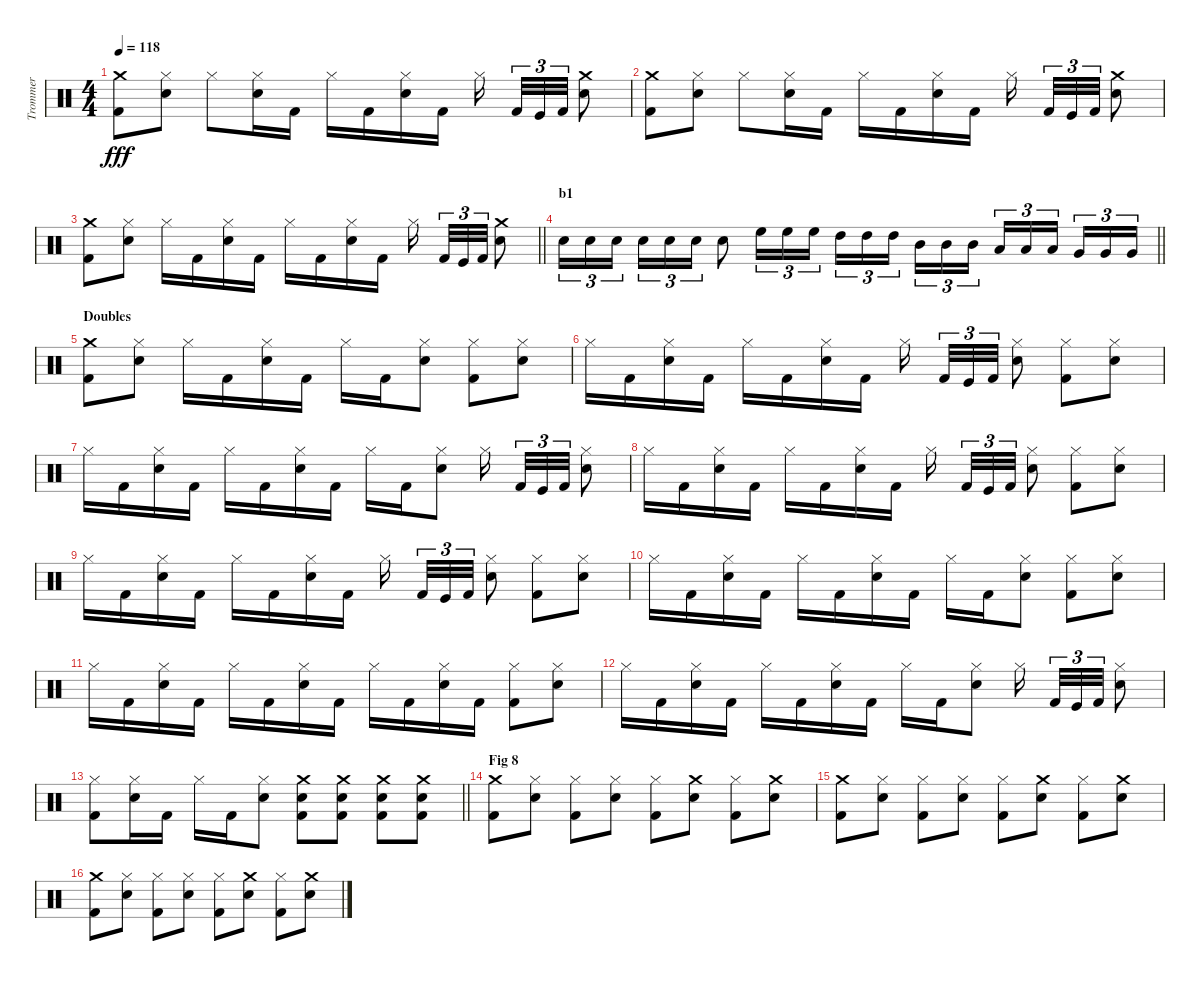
\track ("Trommer" "Trommer") {instrument percussion}
\staff {score}
\articulation defaults
\ts (4 4)
\tempo 118
\clef neutral
\ks c
("Crash medium (hit)" "Kick (hit) 2").8{dy fff} ("Hi-Hat (closed)" "Electric Snare (hit)").8 "Hi-Hat (closed)".8 ("Hi-Hat (closed)" "Electric Snare (hit)").16 "Kick (hit) 2".16 "Hi-Hat (closed)".16 "Kick (hit) 2".16 ("Hi-Hat (closed)" "Electric Snare (hit)").16 "Kick (hit) 2".16 "Hi-Hat (closed)".16{beam splitsecondary} "Kick (hit) 2".32{tu (3 2)} "Kick (hit)".32{tu (3 2)} "Kick (hit) 2".32{tu (3 2)} ("Crash medium (hit)" "Electric Snare (hit)").8 |
("Crash medium (hit)" "Kick (hit) 2").8 ("Hi-Hat (closed)" "Electric Snare (hit)").8 "Hi-Hat (closed)".8 ("Hi-Hat (closed)" "Electric Snare (hit)").16 "Kick (hit) 2".16 "Hi-Hat (closed)".16 "Kick (hit) 2".16 ("Hi-Hat (closed)" "Electric Snare (hit)").16 "Kick (hit) 2".16 "Hi-Hat (closed)".16{beam splitsecondary} "Kick (hit) 2".32{tu (3 2)} "Kick (hit)".32{tu (3 2)} "Kick (hit) 2".32{tu (3 2)} ("Crash medium (hit)" "Electric Snare (hit)").8 |
\barLineRight lightlight
("Crash medium (hit)" "Kick (hit) 2").8 ("Hi-Hat (closed)" "Electric Snare (hit)").8 "Hi-Hat (closed)".16 "Kick (hit) 2".16 ("Hi-Hat (closed)" "Electric Snare (hit)").16 "Kick (hit) 2".16 "Hi-Hat (closed)".16 "Kick (hit) 2".16 ("Hi-Hat (closed)" "Electric Snare (hit)").16 "Kick (hit) 2".16 "Hi-Hat (closed)".16{beam splitsecondary} "Kick (hit) 2".32{tu (3 2)} "Kick (hit)".32{tu (3 2)} "Kick (hit) 2".32{tu (3 2)} ("Crash medium (hit)" "Electric Snare (hit)").8 |
\section ("" "b1")
\barLineRight lightlight "Electric Snare (hit)".16{tu (3 2)} "Electric Snare (hit)".16{tu (3 2)} "Electric Snare (hit)".16{tu (3 2) beam splitsecondary} "Electric Snare (hit)".16{tu (3 2)} "Electric Snare (hit)".16{tu (3 2)} "Electric Snare (hit)".16{tu (3 2)} "Electric Snare (hit)".8 "High Floor Tom (hit)".16{tu (3 2)} "High Floor Tom (hit)".16{tu (3 2)} "High Floor Tom (hit)".16{tu (3 2)} "High Tom (hit)".16{tu (3 2)} "High Tom (hit)".16{tu (3 2)} "High Tom (hit)".16{tu (3 2) beam splitsecondary} "Mid Tom (hit)".16{tu (3 2)} "Mid Tom (hit)".16{tu (3 2)} "Mid Tom (hit)".16{tu (3 2)} "Low Tom (hit)".16{tu (3 2)} "Low Tom (hit)".16{tu (3 2)} "Low Tom (hit)".16{tu (3 2) beam splitsecondary} "Very Low Tom (hit)".16{tu (3 2)} "Very Low Tom (hit)".16{tu (3 2)} "Very Low Tom (hit)".16{tu (3 2)}
|
\section ("" "Doubles")
("Crash medium (hit)" "Kick (hit) 2").8 ("Hi-Hat (closed)" "Electric Snare (hit)").8 "Hi-Hat (closed)".16 "Kick (hit) 2".16 ("Hi-Hat (closed)" "Electric Snare (hit)").16 "Kick (hit) 2".16 "Hi-Hat (closed)".16 "Kick (hit) 2".16 ("Hi-Hat (closed)" "Electric Snare (hit)").8 ("Hi-Hat (closed)" "Kick (hit) 2").8 ("Hi-Hat (closed)" "Electric Snare (hit)").8 |
"Hi-Hat (closed)".16 "Kick (hit) 2".16 ("Hi-Hat (closed)" "Electric Snare (hit)").16 "Kick (hit) 2".16 "Hi-Hat (closed)".16 "Kick (hit) 2".16 ("Hi-Hat (closed)" "Electric Snare (hit)").16 "Kick (hit) 2".16 "Hi-Hat (closed)".16{beam splitsecondary} "Kick (hit) 2".32{tu (3 2)} "Kick (hit)".32{tu (3 2)} "Kick (hit) 2".32{tu (3 2)} ("Hi-Hat (closed)" "Electric Snare (hit)").8 ("Hi-Hat (closed)" "Kick (hit) 2").8 ("Hi-Hat (closed)" "Electric Snare (hit)").8 |
"Hi-Hat (closed)".16 "Kick (hit) 2".16 ("Hi-Hat (closed)" "Electric Snare (hit)").16 "Kick (hit) 2".16 "Hi-Hat (closed)".16 "Kick (hit) 2".16 ("Hi-Hat (closed)" "Electric Snare (hit)").16 "Kick (hit) 2".16 "Hi-Hat (closed)".16 "Kick (hit) 2".16 ("Hi-Hat (closed)" "Electric Snare (hit)").8 "Hi-Hat (closed)".16{beam splitsecondary} "Kick (hit) 2".32{tu (3 2)} "Kick (hit)".32{tu (3 2)} "Kick (hit) 2".32{tu (3 2)} ("Hi-Hat (closed)" "Electric Snare (hit)").8 |
"Hi-Hat (closed)".16 "Kick (hit) 2".16 ("Hi-Hat (closed)" "Electric Snare (hit)").16 "Kick (hit) 2".16 "Hi-Hat (closed)".16 "Kick (hit) 2".16 ("Hi-Hat (closed)" "Electric Snare (hit)").16 "Kick (hit) 2".16 "Hi-Hat (closed)".16{beam splitsecondary} "Kick (hit) 2".32{tu (3 2)} "Kick (hit)".32{tu (3 2)} "Kick (hit) 2".32{tu (3 2)} ("Hi-Hat (closed)" "Electric Snare (hit)").8 ("Hi-Hat (closed)" "Kick (hit) 2").8 ("Hi-Hat (closed)" "Electric Snare (hit)").8 |
"Hi-Hat (closed)".16 "Kick (hit) 2".16 ("Hi-Hat (closed)" "Electric Snare (hit)").16 "Kick (hit) 2".16 "Hi-Hat (closed)".16 "Kick (hit) 2".16 ("Hi-Hat (closed)" "Electric Snare (hit)").16 "Kick (hit) 2".16 "Hi-Hat (closed)".16{beam splitsecondary} "Kick (hit) 2".32{tu (3 2)} "Kick (hit)".32{tu (3 2)} "Kick (hit) 2".32{tu (3 2)} ("Hi-Hat (closed)" "Electric Snare (hit)").8 ("Hi-Hat (closed)" "Kick (hit) 2").8 ("Hi-Hat (closed)" "Electric Snare (hit)").8 |
"Hi-Hat (closed)".16 "Kick (hit) 2".16 ("Hi-Hat (closed)" "Electric Snare (hit)").16 "Kick (hit) 2".16 "Hi-Hat (closed)".16 "Kick (hit) 2".16 ("Hi-Hat (closed)" "Electric Snare (hit)").16 "Kick (hit) 2".16 "Hi-Hat (closed)".16 "Kick (hit) 2".16 ("Hi-Hat (closed)" "Electric Snare (hit)").8 ("Hi-Hat (closed)" "Kick (hit) 2").8 ("Hi-Hat (closed)" "Electric Snare (hit)").8 |
"Hi-Hat (closed)".16 "Kick (hit) 2".16 ("Hi-Hat (closed)" "Electric Snare (hit)").16 "Kick (hit) 2".16 "Hi-Hat (closed)".16 "Kick (hit) 2".16 ("Hi-Hat (closed)" "Electric Snare (hit)").16 "Kick (hit) 2".16 "Hi-Hat (closed)".16 "Kick (hit) 2".16 ("Hi-Hat (closed)" "Electric Snare (hit)").16 "Kick (hit) 2".16 ("Hi-Hat (closed)" "Kick (hit) 2").8 ("Hi-Hat (closed)" "Electric Snare (hit)").8 |
"Hi-Hat (closed)".16 "Kick (hit) 2".16 ("Hi-Hat (closed)" "Electric Snare (hit)").16 "Kick (hit) 2".16 "Hi-Hat (closed)".16 "Kick (hit) 2".16 ("Hi-Hat (closed)" "Electric Snare (hit)").16 "Kick (hit) 2".16 "Hi-Hat (closed)".16 "Kick (hit) 2".16 ("Hi-Hat (closed)" "Electric Snare (hit)").8 "Hi-Hat (closed)".16{beam splitsecondary} "Kick (hit) 2".32{tu (3 2)} "Kick (hit)".32{tu (3 2)} "Kick (hit) 2".32{tu (3 2)} ("Hi-Hat (closed)" "Electric Snare (hit)").8 |
\barLineRight lightlight
("Hi-Hat (closed)" "Kick (hit) 2").8 ("Hi-Hat (closed)" "Electric Snare (hit)").16 "Kick (hit) 2".16 "Hi-Hat (closed)".16 "Kick (hit) 2".16 ("Hi-Hat (closed)" "Electric Snare (hit)").8 ("Crash medium (hit)" "Electric Snare (hit)" "Kick (hit) 2").8 ("Crash medium (hit)" "Electric Snare (hit)" "Kick (hit) 2").8 ("Crash medium (hit)" "Electric Snare (hit)" "Kick (hit) 2").8 ("Crash medium (hit)" "Electric Snare (hit)" "Kick (hit) 2").8 |
\section ("" "Fig 8")
("Crash medium (hit)" "Kick (hit) 2").8 ("Hi-Hat (closed)" "Electric Snare (hit)").8 ("Hi-Hat (closed)" "Kick (hit) 2").8 ("Hi-Hat (closed)" "Electric Snare (hit)").8 ("Hi-Hat (closed)" "Kick (hit) 2").8 ("Crash medium (hit)" "Electric Snare (hit)").8 ("Hi-Hat (closed)" "Kick (hit) 2").8 ("Crash medium (hit)" "Electric Snare (hit)").8 |
("Crash medium (hit)" "Kick (hit) 2").8 ("Hi-Hat (closed)" "Electric Snare (hit)").8 ("Hi-Hat (closed)" "Kick (hit) 2").8 ("Hi-Hat (closed)" "Electric Snare (hit)").8 ("Hi-Hat (closed)" "Kick (hit) 2").8 ("Crash medium (hit)" "Electric Snare (hit)").8 ("Hi-Hat (closed)" "Kick (hit) 2").8 ("Crash medium (hit)" "Electric Snare (hit)").8 |
("Crash medium (hit)" "Kick (hit) 2").8 ("Hi-Hat (closed)" "Electric Snare (hit)").8 ("Hi-Hat (closed)" "Kick (hit) 2").8 ("Hi-Hat (closed)" "Electric Snare (hit)").8 ("Hi-Hat (closed)" "Kick (hit) 2").8 ("Crash medium (hit)" "Electric Snare (hit)").8 ("Hi-Hat (closed)" "Kick (hit) 2").8 ("Crash medium (hit)" "Electric Snare (hit)").8
